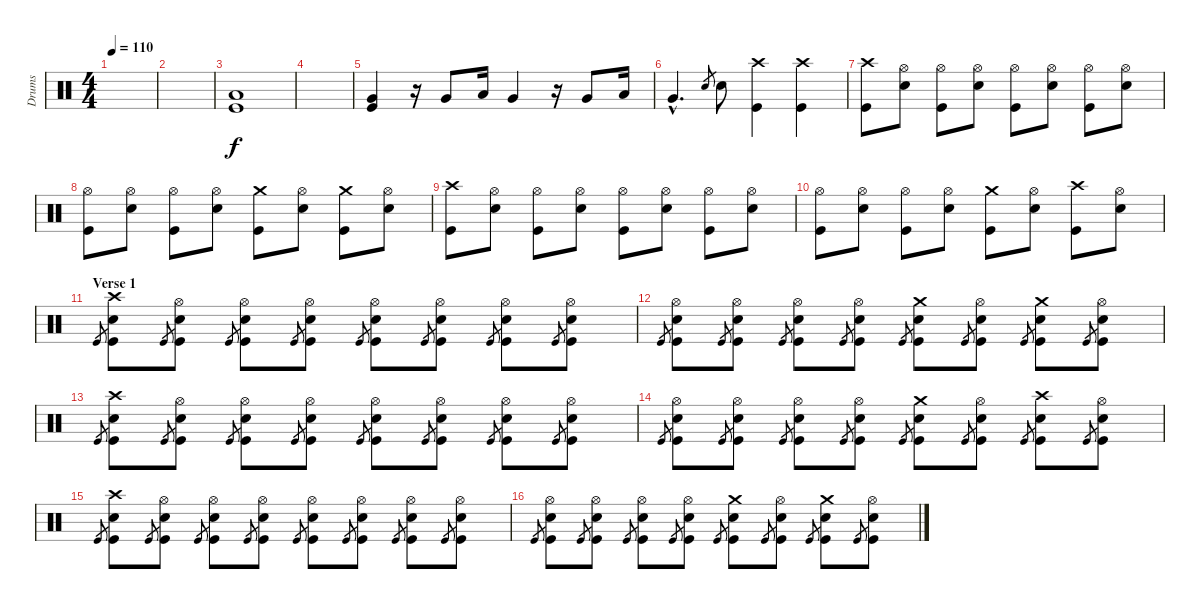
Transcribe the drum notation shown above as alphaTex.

\track ("Drums" "Drums") {instrument percussion}
\staff {score}
\articulation defaults
\ts (4 4)
\tempo 110
\clef neutral
\ks c
|
|
("Low Tom (hit)" "Kick (hit)").1 |
|
("Very Low Tom (hit)" "Kick (hit)").4 r.16 "Very Low Tom (hit)".8 "Low Floor Tom (hit)".16 "Very Low Tom (hit)".4 r.16 "Very Low Tom (hit)".8 "Low Floor Tom (hit)".16 |
"Very Low Tom (hit)"{hac}.4{d} "Snare (hit) 2".8{gr} "Snare (hit) 2".8 ("Crash high (hit)" "Kick (hit)").4 ("Crash high (hit)" "Kick (hit)").4 |
("Crash high (hit)" "Kick (hit)").8 ("Hi-Hat (open)" "Snare (hit) 2").8 ("Hi-Hat (open)" "Kick (hit)").8 ("Hi-Hat (open)" "Snare (hit) 2").8 ("Hi-Hat (open)" "Kick (hit)").8 ("Hi-Hat (open)" "Snare (hit) 2").8 ("Hi-Hat (open)" "Kick (hit)").8 ("Hi-Hat (open)" "Snare (hit) 2").8 |
("Hi-Hat (open)" "Kick (hit)").8 ("Hi-Hat (open)" "Snare (hit) 2").8 ("Hi-Hat (open)" "Kick (hit)").8 ("Hi-Hat (open)" "Snare (hit) 2").8 ("Crash medium (hit)" "Kick (hit)").8 ("Hi-Hat (open)" "Snare (hit) 2").8 ("Crash medium (hit)" "Kick (hit)").8 ("Hi-Hat (open)" "Snare (hit) 2").8 |
("Crash high (hit)" "Kick (hit)").8 ("Hi-Hat (open)" "Snare (hit) 2").8 ("Hi-Hat (open)" "Kick (hit)").8 ("Hi-Hat (open)" "Snare (hit) 2").8 ("Hi-Hat (open)" "Kick (hit)").8 ("Hi-Hat (open)" "Snare (hit) 2").8 ("Hi-Hat (open)" "Kick (hit)").8 ("Hi-Hat (open)" "Snare (hit) 2").8 |
("Hi-Hat (open)" "Kick (hit)").8 ("Hi-Hat (open)" "Snare (hit) 2").8 ("Hi-Hat (open)" "Kick (hit)").8 ("Hi-Hat (open)" "Snare (hit) 2").8 ("Crash medium (hit)" "Kick (hit)").8 ("Hi-Hat (open)" "Snare (hit) 2").8 ("Crash high (hit)" "Kick (hit)").8 ("Hi-Hat (open)" "Snare (hit) 2").8 |
\section ("" "Verse 1")
"Kick (hit)".8{gr} ("Crash high (hit)" "Snare (hit) 2" "Kick (hit)").8 "Kick (hit)".8{gr} ("Hi-Hat (open)" "Snare (hit) 2" "Kick (hit)").8 "Kick (hit)".8{gr} ("Hi-Hat (open)" "Snare (hit) 2" "Kick (hit)").8 "Kick (hit)".8{gr} ("Hi-Hat (open)" "Snare (hit) 2" "Kick (hit)").8 "Kick (hit)".8{gr} ("Hi-Hat (open)" "Snare (hit) 2" "Kick (hit)").8 "Kick (hit)".8{gr} ("Hi-Hat (open)" "Snare (hit) 2" "Kick (hit)").8 "Kick (hit)".8{gr} ("Hi-Hat (open)" "Snare (hit) 2" "Kick (hit)").8 "Kick (hit)".8{gr} ("Hi-Hat (open)" "Snare (hit) 2" "Kick (hit)").8 |
"Kick (hit)".8{gr} ("Hi-Hat (open)" "Snare (hit) 2" "Kick (hit)").8 "Kick (hit)".8{gr} ("Hi-Hat (open)" "Snare (hit) 2" "Kick (hit)").8 "Kick (hit)".8{gr} ("Hi-Hat (open)" "Snare (hit) 2" "Kick (hit)").8 "Kick (hit)".8{gr} ("Hi-Hat (open)" "Snare (hit) 2" "Kick (hit)").8 "Kick (hit)".8{gr} ("Crash medium (hit)" "Snare (hit) 2" "Kick (hit)").8 "Kick (hit)".8{gr} ("Hi-Hat (open)" "Snare (hit) 2" "Kick (hit)").8 "Kick (hit)".8{gr} ("Crash medium (hit)" "Snare (hit) 2" "Kick (hit)").8 "Kick (hit)".8{gr} ("Hi-Hat (open)" "Snare (hit) 2" "Kick (hit)").8 |
"Kick (hit)".8{gr} ("Crash high (hit)" "Snare (hit) 2" "Kick (hit)").8 "Kick (hit)".8{gr} ("Hi-Hat (open)" "Snare (hit) 2" "Kick (hit)").8 "Kick (hit)".8{gr} ("Hi-Hat (open)" "Snare (hit) 2" "Kick (hit)").8 "Kick (hit)".8{gr} ("Hi-Hat (open)" "Snare (hit) 2" "Kick (hit)").8 "Kick (hit)".8{gr} ("Hi-Hat (open)" "Snare (hit) 2" "Kick (hit)").8 "Kick (hit)".8{gr} ("Hi-Hat (open)" "Snare (hit) 2" "Kick (hit)").8 "Kick (hit)".8{gr} ("Hi-Hat (open)" "Snare (hit) 2" "Kick (hit)").8 "Kick (hit)".8{gr} ("Hi-Hat (open)" "Snare (hit) 2" "Kick (hit)").8 |
"Kick (hit)".8{gr} ("Hi-Hat (open)" "Snare (hit) 2" "Kick (hit)").8 "Kick (hit)".8{gr} ("Hi-Hat (open)" "Snare (hit) 2" "Kick (hit)").8 "Kick (hit)".8{gr} ("Hi-Hat (open)" "Snare (hit) 2" "Kick (hit)").8 "Kick (hit)".8{gr} ("Hi-Hat (open)" "Snare (hit) 2" "Kick (hit)").8 "Kick (hit)".8{gr} ("Crash medium (hit)" "Snare (hit) 2" "Kick (hit)").8 "Kick (hit)".8{gr} ("Hi-Hat (open)" "Snare (hit) 2" "Kick (hit)").8 "Kick (hit)".8{gr} ("Crash high (hit)" "Snare (hit) 2" "Kick (hit)").8 "Kick (hit)".8{gr} ("Hi-Hat (open)" "Snare (hit) 2" "Kick (hit)").8 |
"Kick (hit)".8{gr} ("Crash high (hit)" "Snare (hit) 2" "Kick (hit)").8 "Kick (hit)".8{gr} ("Hi-Hat (open)" "Snare (hit) 2" "Kick (hit)").8 "Kick (hit)".8{gr} ("Hi-Hat (open)" "Snare (hit) 2" "Kick (hit)").8 "Kick (hit)".8{gr} ("Hi-Hat (open)" "Snare (hit) 2" "Kick (hit)").8 "Kick (hit)".8{gr} ("Hi-Hat (open)" "Snare (hit) 2" "Kick (hit)").8 "Kick (hit)".8{gr} ("Hi-Hat (open)" "Snare (hit) 2" "Kick (hit)").8 "Kick (hit)".8{gr} ("Hi-Hat (open)" "Snare (hit) 2" "Kick (hit)").8 "Kick (hit)".8{gr} ("Hi-Hat (open)" "Snare (hit) 2" "Kick (hit)").8 |
"Kick (hit)".8{gr} ("Hi-Hat (open)" "Snare (hit) 2" "Kick (hit)").8 "Kick (hit)".8{gr} ("Hi-Hat (open)" "Snare (hit) 2" "Kick (hit)").8 "Kick (hit)".8{gr} ("Hi-Hat (open)" "Snare (hit) 2" "Kick (hit)").8 "Kick (hit)".8{gr} ("Hi-Hat (open)" "Snare (hit) 2" "Kick (hit)").8 "Kick (hit)".8{gr} ("Crash medium (hit)" "Snare (hit) 2" "Kick (hit)").8 "Kick (hit)".8{gr} ("Hi-Hat (open)" "Snare (hit) 2" "Kick (hit)").8 "Kick (hit)".8{gr} ("Crash medium (hit)" "Snare (hit) 2" "Kick (hit)").8 "Kick (hit)".8{gr} ("Hi-Hat (open)" "Snare (hit) 2" "Kick (hit)").8
